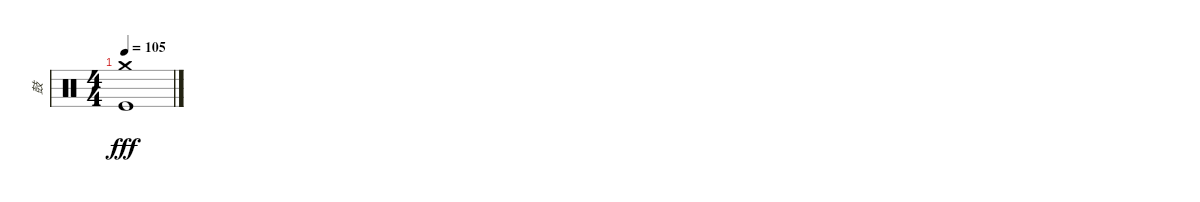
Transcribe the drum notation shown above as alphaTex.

\track ("鼓" "鼓") {instrument percussion}
\staff {score}
\articulation defaults
\ts (4 4)
\tempo 105
\clef neutral
\ks c
("Crash medium (hit)" "Kick (hit)").1{dy fff}
